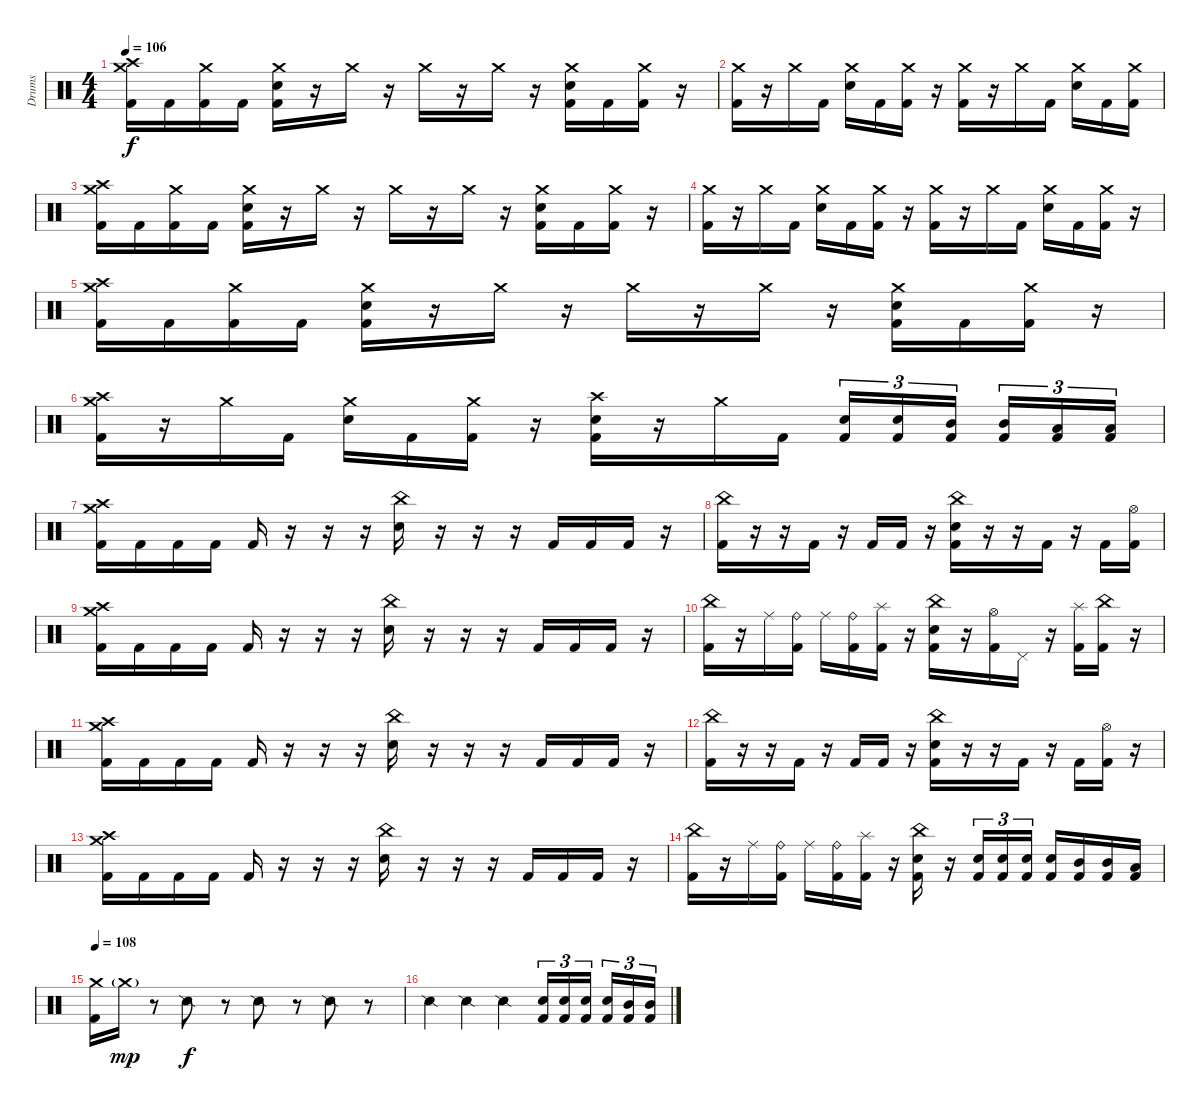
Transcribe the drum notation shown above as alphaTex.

\track ("Drums" "Drums") {instrument percussion}
\staff {score}
\articulation defaults
\ts (4 4)
\tempo 106
\clef neutral
\ks c
("Crash medium (hit)" "Crash high (hit)" "Kick (hit) 2").16{dy f} "Kick (hit) 2".16 ("Crash medium (hit)" "Kick (hit) 2").16 "Kick (hit) 2".16 ("Crash medium (hit)" "Electric Snare (hit)" "Kick (hit) 2").16 r.16 "Crash medium (hit)".16 r.16 "Crash medium (hit)".16 r.16 "Crash medium (hit)".16 r.16 ("Crash medium (hit)" "Electric Snare (hit)" "Kick (hit) 2").16 "Kick (hit) 2".16 ("Crash medium (hit)" "Kick (hit) 2").16 r.16 |
("Crash medium (hit)" "Kick (hit) 2").16 r.16 "Crash medium (hit)".16 "Kick (hit) 2".16 ("Crash medium (hit)" "Electric Snare (hit)").16 "Kick (hit) 2".16 ("Crash medium (hit)" "Kick (hit) 2").16 r.16 ("Crash medium (hit)" "Kick (hit) 2").16 r.16 "Crash medium (hit)".16 "Kick (hit) 2".16 ("Crash medium (hit)" "Electric Snare (hit)").16 "Kick (hit) 2".16 ("Crash medium (hit)" "Kick (hit) 2").16 |
("Crash medium (hit)" "Crash high (hit)" "Kick (hit) 2").16 "Kick (hit) 2".16 ("Crash medium (hit)" "Kick (hit) 2").16 "Kick (hit) 2".16 ("Crash medium (hit)" "Electric Snare (hit)" "Kick (hit) 2").16 r.16 "Crash medium (hit)".16 r.16 "Crash medium (hit)".16 r.16 "Crash medium (hit)".16 r.16 ("Crash medium (hit)" "Electric Snare (hit)" "Kick (hit) 2").16 "Kick (hit) 2".16 ("Crash medium (hit)" "Kick (hit) 2").16 r.16 |
("Crash medium (hit)" "Kick (hit) 2").16 r.16 "Crash medium (hit)".16 "Kick (hit) 2".16 ("Crash medium (hit)" "Electric Snare (hit)").16 "Kick (hit) 2".16 ("Crash medium (hit)" "Kick (hit) 2").16 r.16 ("Crash medium (hit)" "Kick (hit) 2").16 r.16 "Crash medium (hit)".16 "Kick (hit) 2".16 ("Crash medium (hit)" "Electric Snare (hit)").16 "Kick (hit) 2".16 ("Crash medium (hit)" "Kick (hit) 2").16 r.16 |
("Crash medium (hit)" "Crash high (hit)" "Kick (hit) 2").16 "Kick (hit) 2".16 ("Crash medium (hit)" "Kick (hit) 2").16 "Kick (hit) 2".16 ("Crash medium (hit)" "Electric Snare (hit)" "Kick (hit) 2").16 r.16 "Crash medium (hit)".16 r.16 "Crash medium (hit)".16 r.16 "Crash medium (hit)".16 r.16 ("Crash medium (hit)" "Electric Snare (hit)" "Kick (hit) 2").16 "Kick (hit) 2".16 ("Crash medium (hit)" "Kick (hit) 2").16 r.16 |
("Crash high (hit)" "Crash medium (hit)" "Kick (hit) 2").16 r.16 "Crash medium (hit)".16 "Kick (hit) 2".16 ("Crash medium (hit)" "Electric Snare (hit)").16 "Kick (hit) 2".16 ("Crash medium (hit)" "Kick (hit) 2").16 r.16 ("Crash high (hit)" "Electric Snare (hit)" "Kick (hit) 2").16 r.16 "Crash medium (hit)".16 "Kick (hit) 2".16 ("Electric Snare (hit)" "Kick (hit) 2").16{tu (3 2)} ("Electric Snare (hit)" "Kick (hit) 2").16{tu (3 2)} ("Mid Tom (hit)" "Kick (hit) 2").16{tu (3 2) beam splitsecondary} ("Mid Tom (hit)" "Kick (hit) 2").16{tu (3 2)} ("Low Tom (hit)" "Kick (hit) 2").16{tu (3 2)} ("Low Tom (hit)" "Kick (hit) 2").16{tu (3 2)} |
("Crash medium (hit)" "Crash high (hit)" "Kick (hit) 2").16 "Kick (hit) 2".16 "Kick (hit) 2".16 "Kick (hit) 2".16 "Kick (hit) 2".16 r.16 r.16 r.16 ("China (hit)" "Electric Snare (hit)").16 r.16 r.16 r.16 "Kick (hit) 2".16 "Kick (hit) 2".16 "Kick (hit) 2".16 r.16 |
("China (hit)" "Kick (hit) 2").16 r.16 r.16 "Kick (hit) 2".16 r.16 "Kick (hit) 2".16 "Kick (hit) 2".16 r.16 ("China (hit)" "Electric Snare (hit)" "Kick (hit) 2").16 r.16 r.16 "Kick (hit) 2".16 r.16 "Kick (hit) 2".16 ("Hi-Hat (open)" "Kick (hit) 2").16 |
("Crash medium (hit)" "Crash high (hit)" "Kick (hit) 2").16 "Kick (hit) 2".16 "Kick (hit) 2".16 "Kick (hit) 2".16 "Kick (hit) 2".16 r.16 r.16 r.16 ("China (hit)" "Electric Snare (hit)").16 r.16 r.16 r.16 "Kick (hit) 2".16 "Kick (hit) 2".16 "Kick (hit) 2".16 r.16 |
("China (hit)" "Kick (hit) 2").16 r.16 "Ride (middle)".16 ("Ride (bell)" "Kick (hit) 2").16 "Ride (middle)".16 ("Ride (bell)" "Kick (hit) 2").16 ("Splash (hit)" "Kick (hit) 2").16 r.16 ("China (hit)" "Electric Snare (hit)" "Kick (hit) 2").16 r.16 ("Hi-Hat (open)" "Kick (hit) 2").16 "Pedal Hi-Hat (hit)".16 r.16 ("Splash (hit)" "Kick (hit) 2").16 ("China (hit)" "Kick (hit) 2").16 r.16 |
("Crash medium (hit)" "Crash high (hit)" "Kick (hit) 2").16 "Kick (hit) 2".16 "Kick (hit) 2".16 "Kick (hit) 2".16 "Kick (hit) 2".16 r.16 r.16 r.16 ("China (hit)" "Electric Snare (hit)").16 r.16 r.16 r.16 "Kick (hit) 2".16 "Kick (hit) 2".16 "Kick (hit) 2".16 r.16 |
("China (hit)" "Kick (hit) 2").16 r.16 r.16 "Kick (hit) 2".16 r.16 "Kick (hit) 2".16 "Kick (hit) 2".16 r.16 ("China (hit)" "Electric Snare (hit)" "Kick (hit) 2").16 r.16 r.16 "Kick (hit) 2".16 r.16 "Kick (hit) 2".16 ("Hi-Hat (open)" "Kick (hit) 2").16 r.16 |
("Crash medium (hit)" "Crash high (hit)" "Kick (hit) 2").16 "Kick (hit) 2".16 "Kick (hit) 2".16 "Kick (hit) 2".16 "Kick (hit) 2".16 r.16 r.16 r.16 ("China (hit)" "Electric Snare (hit)").16 r.16 r.16 r.16 "Kick (hit) 2".16 "Kick (hit) 2".16 "Kick (hit) 2".16 r.16 |
("China (hit)" "Kick (hit) 2").16 r.16 "Ride (middle)".16 ("Ride (bell)" "Kick (hit) 2").16 "Ride (middle)".16 ("Ride (bell)" "Kick (hit) 2").16 ("Splash (hit)" "Kick (hit) 2").16 r.16 ("China (hit)" "Electric Snare (hit)" "Kick (hit) 2").16 r.16 ("Electric Snare (hit)" "Kick (hit) 2").16{tu (3 2)} ("Electric Snare (hit)" "Kick (hit) 2").16{tu (3 2)} ("Electric Snare (hit)" "Kick (hit) 2").16{tu (3 2)} ("Electric Snare (hit)" "Kick (hit) 2").16 ("Mid Tom (hit)" "Kick (hit) 2").16 ("Mid Tom (hit)" "Kick (hit) 2").16 ("Low Tom (hit)" "Kick (hit) 2").16 |
\tempo 108
("Crash medium (hit)" "Kick (hit) 2").16 "Crash medium (hit)"{g}.16{dy mp} r.8 "Snare (side stick) 2".8{dy f} r.8 "Snare (side stick) 2".8 r.8 "Snare (side stick) 2".8 r.8 |
"Snare (side stick) 2".4 "Snare (side stick) 2".4 "Snare (side stick) 2".4 ("Electric Snare (hit)" "Kick (hit) 2").16{tu (3 2)} ("Electric Snare (hit)" "Kick (hit) 2").16{tu (3 2)} ("Electric Snare (hit)" "Kick (hit) 2").16{tu (3 2) beam splitsecondary} ("Electric Snare (hit)" "Kick (hit) 2").16{tu (3 2)} ("Mid Tom (hit)" "Kick (hit) 2").16{tu (3 2)} ("Mid Tom (hit)" "Kick (hit) 2").16{tu (3 2)}
